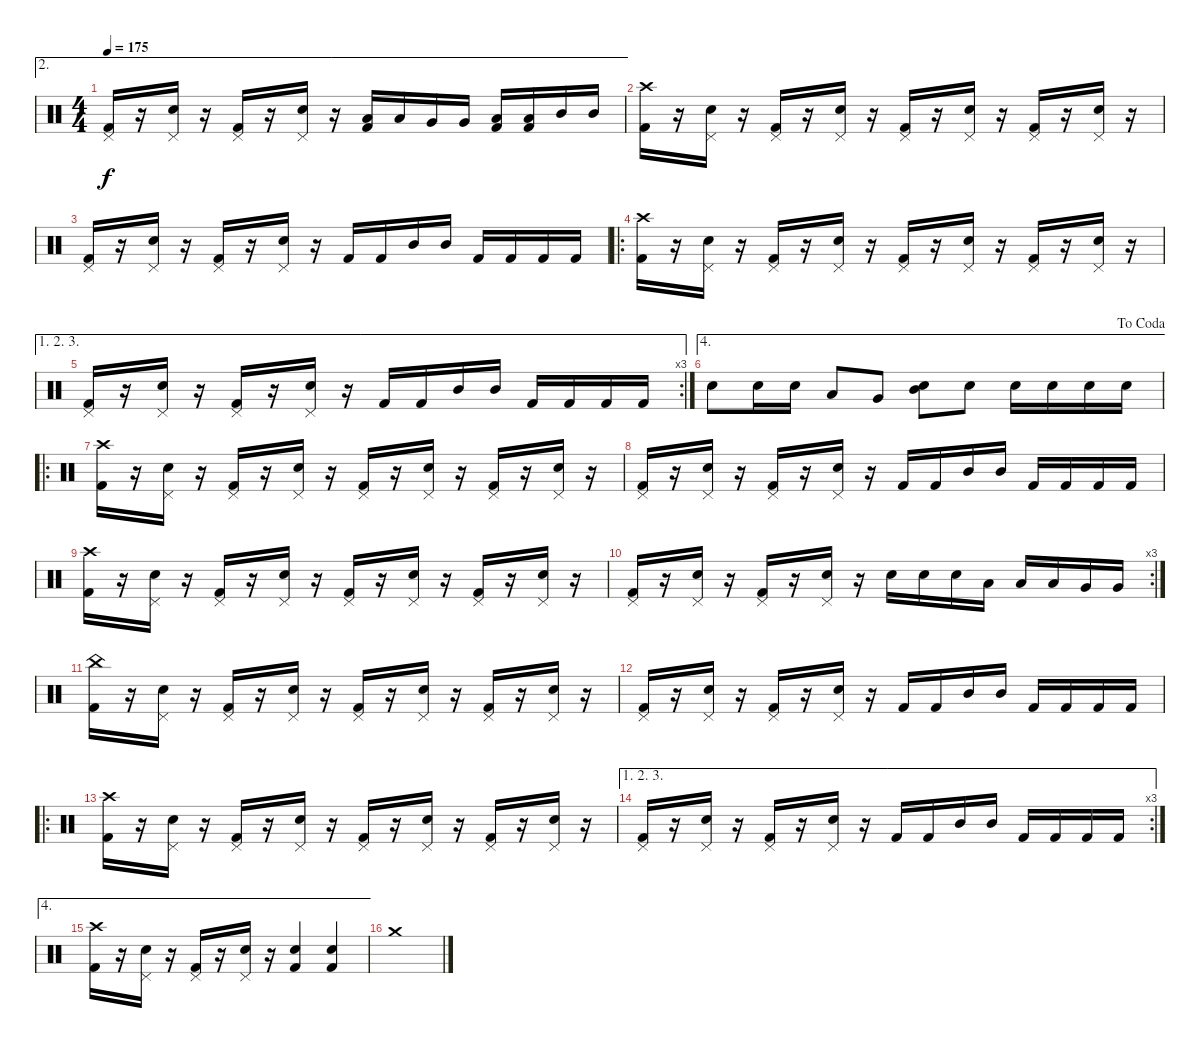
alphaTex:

\track "" {solo instrument percussion}
\staff {score}
\articulation defaults
\ae 2
\ts (4 4)
\tempo 175
\clef neutral
\ks c
("Kick (hit) 2" "Pedal Hi-Hat (hit)").16{dy f} r.16 ("Electric Snare (hit)" "Pedal Hi-Hat (hit)").16 r.16 ("Kick (hit) 2" "Pedal Hi-Hat (hit)").16 r.16 ("Electric Snare (hit)" "Pedal Hi-Hat (hit)").16 r.16 ("Low Floor Tom (hit)" "Kick (hit) 2").16 "Low Floor Tom (hit)".16 "Very Low Tom (hit)".16 "Very Low Tom (hit)".16 ("Low Tom (hit)" "Kick (hit) 2").16 ("Low Tom (hit)" "Kick (hit) 2").16 "Mid Tom (hit)".16 "Mid Tom (hit)".16 |
("Kick (hit) 2" "Crash high (hit)").16 r.16 ("Electric Snare (hit)" "Pedal Hi-Hat (hit)").16 r.16 ("Kick (hit) 2" "Pedal Hi-Hat (hit)").16 r.16 ("Electric Snare (hit)" "Pedal Hi-Hat (hit)").16 r.16 ("Kick (hit) 2" "Pedal Hi-Hat (hit)").16 r.16 ("Electric Snare (hit)" "Pedal Hi-Hat (hit)").16 r.16 ("Kick (hit) 2" "Pedal Hi-Hat (hit)").16 r.16 ("Electric Snare (hit)" "Pedal Hi-Hat (hit)").16 r.16 |
("Kick (hit) 2" "Pedal Hi-Hat (hit)").16 r.16 ("Electric Snare (hit)" "Pedal Hi-Hat (hit)").16 r.16 ("Kick (hit) 2" "Pedal Hi-Hat (hit)").16 r.16 ("Electric Snare (hit)" "Pedal Hi-Hat (hit)").16 r.16 "Kick (hit) 2".16 "Kick (hit) 2".16 "Mid Tom (hit)".16 "Mid Tom (hit)".16 "Kick (hit) 2".16 "Kick (hit) 2".16 "Kick (hit) 2".16 "Kick (hit) 2".16 |
\ro
("Kick (hit) 2" "Crash high (hit)").16 r.16 ("Electric Snare (hit)" "Pedal Hi-Hat (hit)").16 r.16 ("Kick (hit) 2" "Pedal Hi-Hat (hit)").16 r.16 ("Electric Snare (hit)" "Pedal Hi-Hat (hit)").16 r.16 ("Kick (hit) 2" "Pedal Hi-Hat (hit)").16 r.16 ("Electric Snare (hit)" "Pedal Hi-Hat (hit)").16 r.16 ("Kick (hit) 2" "Pedal Hi-Hat (hit)").16 r.16 ("Electric Snare (hit)" "Pedal Hi-Hat (hit)").16 r.16 |
\ae (1 2 3)
\rc 3
("Kick (hit) 2" "Pedal Hi-Hat (hit)").16 r.16 ("Electric Snare (hit)" "Pedal Hi-Hat (hit)").16 r.16 ("Kick (hit) 2" "Pedal Hi-Hat (hit)").16 r.16 ("Electric Snare (hit)" "Pedal Hi-Hat (hit)").16 r.16 "Kick (hit) 2".16 "Kick (hit) 2".16 "Mid Tom (hit)".16 "Mid Tom (hit)".16 "Kick (hit) 2".16 "Kick (hit) 2".16 "Kick (hit) 2".16 "Kick (hit) 2".16 |
\ae 4
\jump dacoda "Electric Snare (hit)".8 "Electric Snare (hit)".16 "Electric Snare (hit)".16 "Low Floor Tom (hit)".8 "Very Low Tom (hit)".8
("Mid Tom (hit)" "Electric Snare (hit)").8 "Electric Snare (hit)".8 "Electric Snare (hit)".16 "Electric Snare (hit)".16 "Electric Snare (hit)".16 "Electric Snare (hit)".16 |
\ro
("Kick (hit) 2" "Crash high (hit)").16 r.16 ("Electric Snare (hit)" "Pedal Hi-Hat (hit)").16 r.16 ("Kick (hit) 2" "Pedal Hi-Hat (hit)").16 r.16 ("Electric Snare (hit)" "Pedal Hi-Hat (hit)").16 r.16 ("Kick (hit) 2" "Pedal Hi-Hat (hit)").16 r.16 ("Electric Snare (hit)" "Pedal Hi-Hat (hit)").16 r.16 ("Kick (hit) 2" "Pedal Hi-Hat (hit)").16 r.16 ("Electric Snare (hit)" "Pedal Hi-Hat (hit)").16 r.16 |
("Kick (hit) 2" "Pedal Hi-Hat (hit)").16 r.16 ("Electric Snare (hit)" "Pedal Hi-Hat (hit)").16 r.16 ("Kick (hit) 2" "Pedal Hi-Hat (hit)").16 r.16 ("Electric Snare (hit)" "Pedal Hi-Hat (hit)").16 r.16 "Kick (hit) 2".16 "Kick (hit) 2".16 "Mid Tom (hit)".16 "Mid Tom (hit)".16 "Kick (hit) 2".16 "Kick (hit) 2".16 "Kick (hit) 2".16 "Kick (hit) 2".16 |
("Kick (hit) 2" "Crash high (hit)").16 r.16 ("Electric Snare (hit)" "Pedal Hi-Hat (hit)").16 r.16 ("Kick (hit) 2" "Pedal Hi-Hat (hit)").16 r.16 ("Electric Snare (hit)" "Pedal Hi-Hat (hit)").16 r.16 ("Kick (hit) 2" "Pedal Hi-Hat (hit)").16 r.16 ("Electric Snare (hit)" "Pedal Hi-Hat (hit)").16 r.16 ("Kick (hit) 2" "Pedal Hi-Hat (hit)").16 r.16 ("Electric Snare (hit)" "Pedal Hi-Hat (hit)").16 r.16 |
\rc 3
("Kick (hit) 2" "Pedal Hi-Hat (hit)").16 r.16 ("Electric Snare (hit)" "Pedal Hi-Hat (hit)").16 r.16 ("Kick (hit) 2" "Pedal Hi-Hat (hit)").16 r.16 ("Electric Snare (hit)" "Pedal Hi-Hat (hit)").16 r.16 "Electric Snare (hit)".16 "Electric Snare (hit)".16 "Electric Snare (hit)".16 "Low Floor Tom (hit)".16 "Low Floor Tom (hit)".16 "Low Floor Tom (hit)".16 "Very Low Tom (hit)".16 "Very Low Tom (hit)".16 |
("Kick (hit) 2" "China (hit)").16 r.16 ("Electric Snare (hit)" "Pedal Hi-Hat (hit)").16 r.16 ("Kick (hit) 2" "Pedal Hi-Hat (hit)").16 r.16 ("Electric Snare (hit)" "Pedal Hi-Hat (hit)").16 r.16 ("Kick (hit) 2" "Pedal Hi-Hat (hit)").16 r.16 ("Electric Snare (hit)" "Pedal Hi-Hat (hit)").16 r.16 ("Kick (hit) 2" "Pedal Hi-Hat (hit)").16 r.16 ("Electric Snare (hit)" "Pedal Hi-Hat (hit)").16 r.16 |
("Kick (hit) 2" "Pedal Hi-Hat (hit)").16 r.16 ("Electric Snare (hit)" "Pedal Hi-Hat (hit)").16 r.16 ("Kick (hit) 2" "Pedal Hi-Hat (hit)").16 r.16 ("Electric Snare (hit)" "Pedal Hi-Hat (hit)").16 r.16 "Kick (hit) 2".16 "Kick (hit) 2".16 "Mid Tom (hit)".16 "Mid Tom (hit)".16 "Kick (hit) 2".16 "Kick (hit) 2".16 "Kick (hit) 2".16 "Kick (hit) 2".16 |
\ro
("Kick (hit) 2" "Crash high (hit)").16 r.16 ("Electric Snare (hit)" "Pedal Hi-Hat (hit)").16 r.16 ("Kick (hit) 2" "Pedal Hi-Hat (hit)").16 r.16 ("Electric Snare (hit)" "Pedal Hi-Hat (hit)").16 r.16 ("Kick (hit) 2" "Pedal Hi-Hat (hit)").16 r.16 ("Electric Snare (hit)" "Pedal Hi-Hat (hit)").16 r.16 ("Kick (hit) 2" "Pedal Hi-Hat (hit)").16 r.16 ("Electric Snare (hit)" "Pedal Hi-Hat (hit)").16 r.16 |
\ae (1 2 3)
\rc 3
("Kick (hit) 2" "Pedal Hi-Hat (hit)").16 r.16 ("Electric Snare (hit)" "Pedal Hi-Hat (hit)").16 r.16 ("Kick (hit) 2" "Pedal Hi-Hat (hit)").16 r.16 ("Electric Snare (hit)" "Pedal Hi-Hat (hit)").16 r.16 "Kick (hit) 2".16 "Kick (hit) 2".16 "Mid Tom (hit)".16 "Mid Tom (hit)".16 "Kick (hit) 2".16 "Kick (hit) 2".16 "Kick (hit) 2".16 "Kick (hit) 2".16 |
\ae 4
("Kick (hit) 2" "Crash high (hit)").16 r.16 ("Electric Snare (hit)" "Pedal Hi-Hat (hit)").16 r.16 ("Kick (hit) 2" "Pedal Hi-Hat (hit)").16 r.16 ("Electric Snare (hit)" "Pedal Hi-Hat (hit)").16 r.16 ("Electric Snare (hit)" "Kick (hit) 2").4 ("Electric Snare (hit)" "Kick (hit) 2").4 |
"Crash medium (hit)".1
